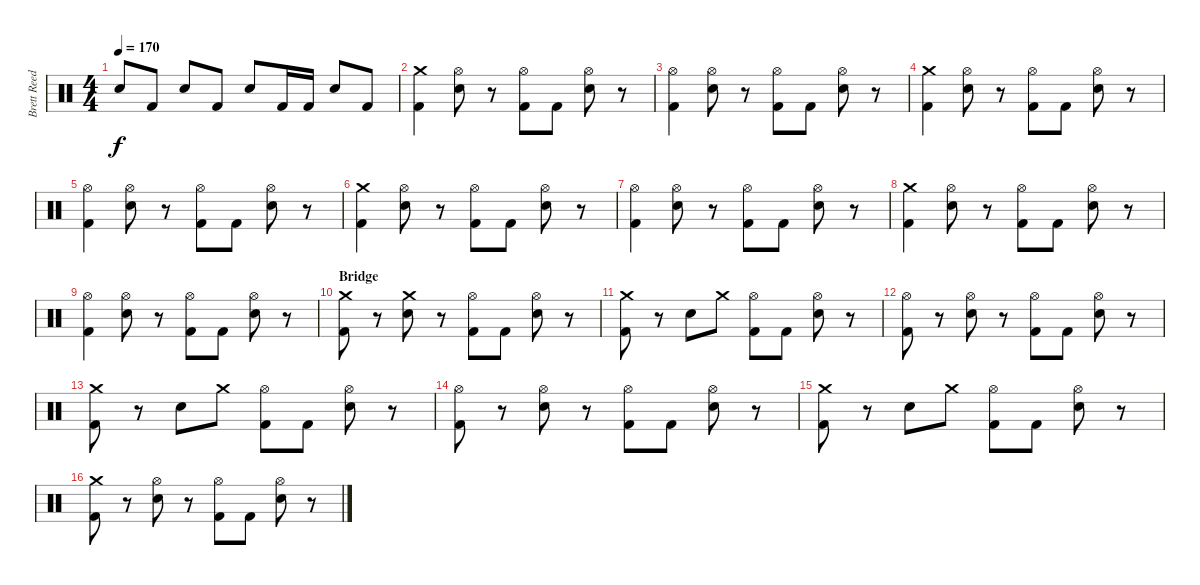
\track ("Brett Reed" "Brett Reed") {instrument percussion}
\staff {score}
\articulation defaults
\ts (4 4)
\tempo 170
\clef neutral
\ks c "Snare (hit) 2".8{dy f} "Kick (hit) 2".8 "Snare (hit) 2".8 "Kick (hit) 2".8 "Snare (hit) 2".8 "Kick (hit) 2".16 "Kick (hit) 2".16 "Snare (hit) 2".8 "Kick (hit) 2".8
|
\section ("" "")
("Crash medium (hit)" "Kick (hit) 2").4 ("Hi-Hat (open)" "Snare (hit) 2").8 r.8 ("Hi-Hat (open)" "Kick (hit) 2").8 "Kick (hit) 2".8 ("Hi-Hat (open)" "Snare (hit) 2").8 r.8 |
("Hi-Hat (open)" "Kick (hit) 2").4 ("Hi-Hat (open)" "Snare (hit) 2").8 r.8 ("Hi-Hat (open)" "Kick (hit) 2").8 "Kick (hit) 2".8 ("Hi-Hat (open)" "Snare (hit) 2").8 r.8 |
("Crash medium (hit)" "Kick (hit) 2").4 ("Hi-Hat (open)" "Snare (hit) 2").8 r.8 ("Hi-Hat (open)" "Kick (hit) 2").8 "Kick (hit) 2".8 ("Hi-Hat (open)" "Snare (hit) 2").8 r.8 |
("Hi-Hat (open)" "Kick (hit) 2").4 ("Hi-Hat (open)" "Snare (hit) 2").8 r.8 ("Hi-Hat (open)" "Kick (hit) 2").8 "Kick (hit) 2".8 ("Hi-Hat (open)" "Snare (hit) 2").8 r.8 |
("Crash medium (hit)" "Kick (hit) 2").4 ("Hi-Hat (open)" "Snare (hit) 2").8 r.8 ("Hi-Hat (open)" "Kick (hit) 2").8 "Kick (hit) 2".8 ("Hi-Hat (open)" "Snare (hit) 2").8 r.8 |
("Hi-Hat (open)" "Kick (hit) 2").4 ("Hi-Hat (open)" "Snare (hit) 2").8 r.8 ("Hi-Hat (open)" "Kick (hit) 2").8 "Kick (hit) 2".8 ("Hi-Hat (open)" "Snare (hit) 2").8 r.8 |
("Crash medium (hit)" "Kick (hit) 2").4 ("Hi-Hat (open)" "Snare (hit) 2").8 r.8 ("Hi-Hat (open)" "Kick (hit) 2").8 "Kick (hit) 2".8 ("Hi-Hat (open)" "Snare (hit) 2").8 r.8 |
("Hi-Hat (open)" "Kick (hit) 2").4 ("Hi-Hat (open)" "Snare (hit) 2").8 r.8 ("Hi-Hat (open)" "Kick (hit) 2").8 "Kick (hit) 2".8 ("Hi-Hat (open)" "Snare (hit) 2").8 r.8 |
\section ("" "Bridge")
("Crash medium (hit)" "Kick (hit) 2").8 r.8 ("Crash medium (hit)" "Snare (hit) 2").8 r.8 ("Hi-Hat (open)" "Kick (hit) 2").8 "Kick (hit) 2".8 ("Hi-Hat (open)" "Snare (hit) 2").8 r.8 |
("Crash medium (hit)" "Kick (hit) 2").8 r.8 "Snare (hit) 2".8 "Crash medium (hit)".8 ("Hi-Hat (open)" "Kick (hit) 2").8 "Kick (hit) 2".8 ("Hi-Hat (open)" "Snare (hit) 2").8 r.8 |
("Hi-Hat (open)" "Kick (hit) 2").8 r.8 ("Hi-Hat (open)" "Snare (hit) 2").8 r.8 ("Hi-Hat (open)" "Kick (hit) 2").8 "Kick (hit) 2".8 ("Hi-Hat (open)" "Snare (hit) 2").8 r.8 |
("Crash medium (hit)" "Kick (hit) 2").8 r.8 "Snare (hit) 2".8 "Crash medium (hit)".8 ("Hi-Hat (open)" "Kick (hit) 2").8 "Kick (hit) 2".8 ("Hi-Hat (open)" "Snare (hit) 2").8 r.8 |
("Hi-Hat (open)" "Kick (hit) 2").8 r.8 ("Hi-Hat (open)" "Snare (hit) 2").8 r.8 ("Hi-Hat (open)" "Kick (hit) 2").8 "Kick (hit) 2".8 ("Hi-Hat (open)" "Snare (hit) 2").8 r.8 |
("Crash medium (hit)" "Kick (hit) 2").8 r.8 "Snare (hit) 2".8 "Crash medium (hit)".8 ("Hi-Hat (open)" "Kick (hit) 2").8 "Kick (hit) 2".8 ("Hi-Hat (open)" "Snare (hit) 2").8 r.8 |
("Crash medium (hit)" "Kick (hit) 2").8 r.8 ("Hi-Hat (open)" "Snare (hit) 2").8 r.8 ("Hi-Hat (open)" "Kick (hit) 2").8 "Kick (hit) 2".8 ("Hi-Hat (open)" "Snare (hit) 2").8 r.8
